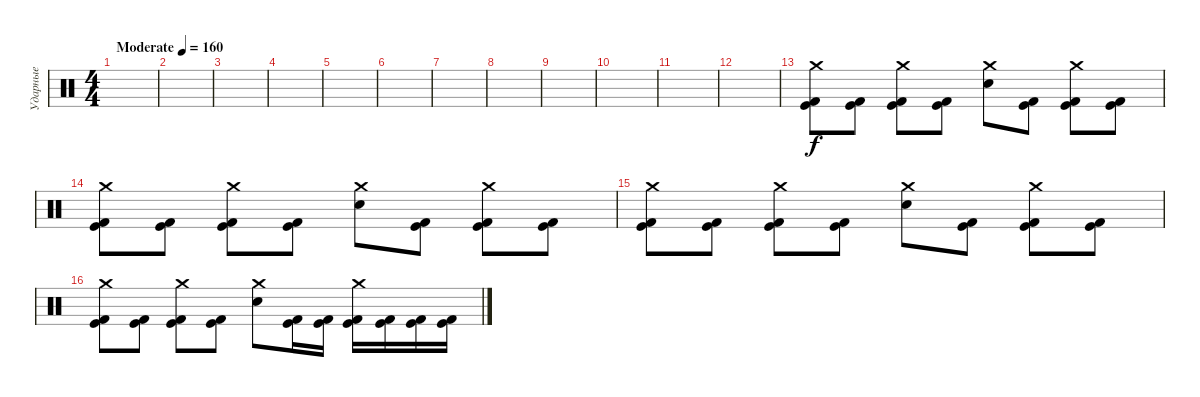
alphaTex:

\track ("Ударные" "Ударные") {instrument percussion}
\staff {score}
\articulation defaults
\ts (4 4)
\tempo (160 "Moderate")
\clef neutral
\ks c
|
|
|
|
|
|
|
|
|
|
|
|
("Crash medium (hit)" "Kick (hit)" "Kick (hit) 2").8 ("Kick (hit)" "Kick (hit) 2").8 ("Crash medium (hit)" "Kick (hit)" "Kick (hit) 2").8 ("Kick (hit)" "Kick (hit) 2").8 ("Crash medium (hit)" "Snare (hit) 2").8 ("Kick (hit)" "Kick (hit) 2").8 ("Crash medium (hit)" "Kick (hit)" "Kick (hit) 2").8 ("Kick (hit)" "Kick (hit) 2").8 |
("Crash medium (hit)" "Kick (hit)" "Kick (hit) 2").8 ("Kick (hit)" "Kick (hit) 2").8 ("Crash medium (hit)" "Kick (hit)" "Kick (hit) 2").8 ("Kick (hit)" "Kick (hit) 2").8 ("Crash medium (hit)" "Snare (hit) 2").8 ("Kick (hit)" "Kick (hit) 2").8 ("Crash medium (hit)" "Kick (hit)" "Kick (hit) 2").8 ("Kick (hit)" "Kick (hit) 2").8 |
("Crash medium (hit)" "Kick (hit)" "Kick (hit) 2").8 ("Kick (hit)" "Kick (hit) 2").8 ("Crash medium (hit)" "Kick (hit)" "Kick (hit) 2").8 ("Kick (hit)" "Kick (hit) 2").8 ("Crash medium (hit)" "Snare (hit) 2").8 ("Kick (hit)" "Kick (hit) 2").8 ("Crash medium (hit)" "Kick (hit)" "Kick (hit) 2").8 ("Kick (hit)" "Kick (hit) 2").8 |
("Crash medium (hit)" "Kick (hit)" "Kick (hit) 2").8 ("Kick (hit)" "Kick (hit) 2").8 ("Crash medium (hit)" "Kick (hit)" "Kick (hit) 2").8 ("Kick (hit)" "Kick (hit) 2").8 ("Crash medium (hit)" "Snare (hit) 2").8 ("Kick (hit)" "Kick (hit) 2").16 ("Kick (hit)" "Kick (hit) 2").16 ("Crash medium (hit)" "Kick (hit)" "Kick (hit) 2").16 ("Kick (hit)" "Kick (hit) 2").16 ("Kick (hit)" "Kick (hit) 2").16 ("Kick (hit)" "Kick (hit) 2").16
